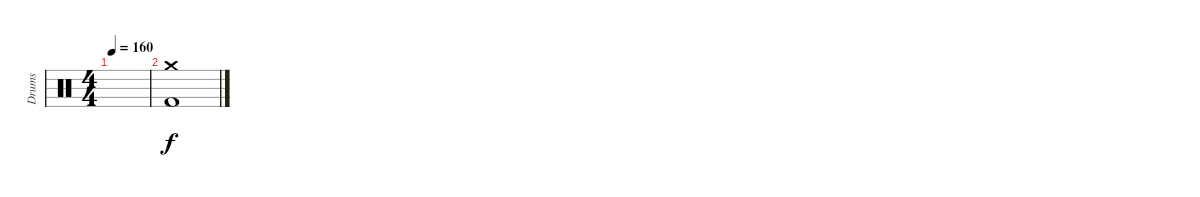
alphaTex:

\track ("Drums" "Drums") {instrument percussion}
\staff {score}
\articulation defaults
\ts (4 4)
\tempo 160
\clef neutral
\ks c
|
("Crash medium (hit)" "Kick (hit) 2").1
